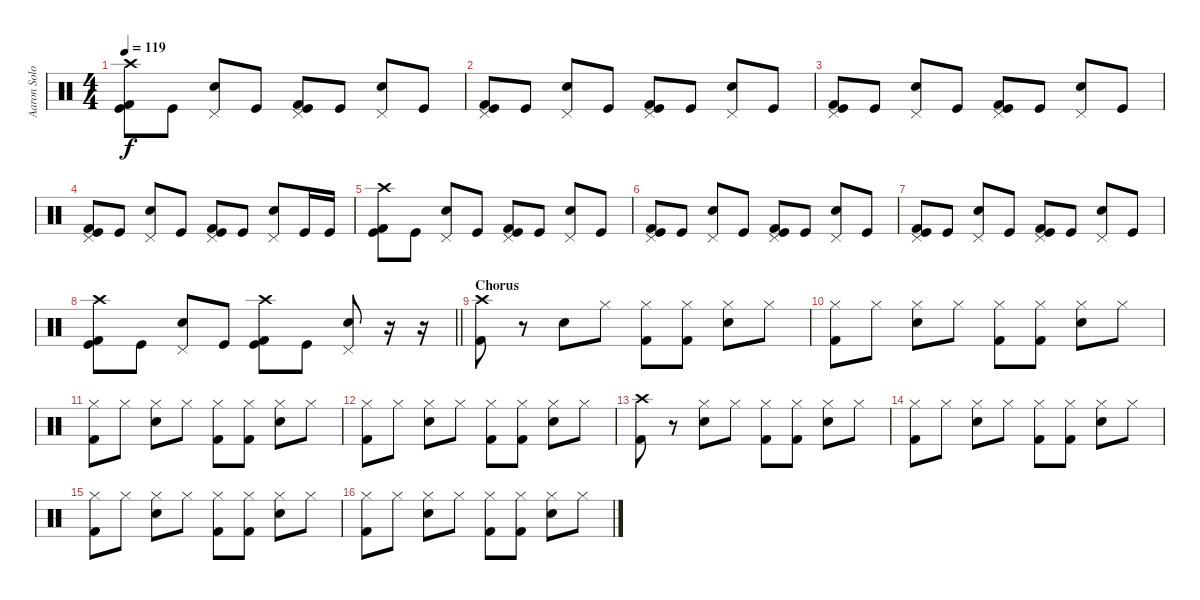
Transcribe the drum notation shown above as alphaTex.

\track ("Aaron Solowoniuk (Drums)" "Aaron Solo") {instrument percussion}
\staff {score}
\articulation defaults
\ts (4 4)
\tempo 119
\clef neutral
\ks c
("Crash high (hit)" "Kick (hit)" "Kick (hit) 2").8{dy f} "Kick (hit)".8 ("Pedal Hi-Hat (hit)" "Electric Snare (hit)").8 "Kick (hit)".8 ("Pedal Hi-Hat (hit)" "Kick (hit)" "Kick (hit) 2").8 "Kick (hit)".8 ("Pedal Hi-Hat (hit)" "Electric Snare (hit)").8 "Kick (hit)".8 |
("Pedal Hi-Hat (hit)" "Kick (hit)" "Kick (hit) 2").8 "Kick (hit)".8 ("Pedal Hi-Hat (hit)" "Electric Snare (hit)").8 "Kick (hit)".8 ("Pedal Hi-Hat (hit)" "Kick (hit)" "Kick (hit) 2").8 "Kick (hit)".8 ("Pedal Hi-Hat (hit)" "Electric Snare (hit)").8 "Kick (hit)".8 |
("Pedal Hi-Hat (hit)" "Kick (hit)" "Kick (hit) 2").8 "Kick (hit)".8 ("Pedal Hi-Hat (hit)" "Electric Snare (hit)").8 "Kick (hit)".8 ("Pedal Hi-Hat (hit)" "Kick (hit)" "Kick (hit) 2").8 "Kick (hit)".8 ("Pedal Hi-Hat (hit)" "Electric Snare (hit)").8 "Kick (hit)".8 |
("Pedal Hi-Hat (hit)" "Kick (hit)" "Kick (hit) 2").8 "Kick (hit)".8 ("Pedal Hi-Hat (hit)" "Electric Snare (hit)").8 "Kick (hit)".8 ("Pedal Hi-Hat (hit)" "Kick (hit)" "Kick (hit) 2").8 "Kick (hit)".8 ("Pedal Hi-Hat (hit)" "Electric Snare (hit)").8 "Kick (hit)".16 "Kick (hit)".16 |
("Crash high (hit)" "Kick (hit)" "Kick (hit) 2").8 "Kick (hit)".8 ("Pedal Hi-Hat (hit)" "Electric Snare (hit)").8 "Kick (hit)".8 ("Pedal Hi-Hat (hit)" "Kick (hit)" "Kick (hit) 2").8 "Kick (hit)".8 ("Pedal Hi-Hat (hit)" "Electric Snare (hit)").8 "Kick (hit)".8 |
("Pedal Hi-Hat (hit)" "Kick (hit)" "Kick (hit) 2").8 "Kick (hit)".8 ("Pedal Hi-Hat (hit)" "Electric Snare (hit)").8 "Kick (hit)".8 ("Pedal Hi-Hat (hit)" "Kick (hit)" "Kick (hit) 2").8 "Kick (hit)".8 ("Pedal Hi-Hat (hit)" "Electric Snare (hit)").8 "Kick (hit)".8 |
("Pedal Hi-Hat (hit)" "Kick (hit)" "Kick (hit) 2").8 "Kick (hit)".8 ("Pedal Hi-Hat (hit)" "Electric Snare (hit)").8 "Kick (hit)".8 ("Pedal Hi-Hat (hit)" "Kick (hit)" "Kick (hit) 2").8 "Kick (hit)".8 ("Pedal Hi-Hat (hit)" "Electric Snare (hit)").8 "Kick (hit)".8 |
\barLineRight lightlight
("Crash high (hit)" "Kick (hit)" "Kick (hit) 2").8 "Kick (hit)".8 ("Pedal Hi-Hat (hit)" "Electric Snare (hit)").8 "Kick (hit)".8 ("Crash high (hit)" "Kick (hit)" "Kick (hit) 2").8 "Kick (hit)".8 ("Pedal Hi-Hat (hit)" "Electric Snare (hit)").8 r.16 r.16 |
\section ("" "Chorus")
("Crash high (hit)" "Kick (hit) 2").8 r.8 "Electric Snare (hit)".8 "Hi-Hat (closed)".8 ("Hi-Hat (closed)" "Kick (hit) 2").8 ("Hi-Hat (closed)" "Kick (hit) 2").8 ("Hi-Hat (closed)" "Electric Snare (hit)").8 "Hi-Hat (closed)".8 |
("Hi-Hat (closed)" "Kick (hit) 2").8 "Hi-Hat (closed)".8 ("Hi-Hat (closed)" "Electric Snare (hit)").8 "Hi-Hat (closed)".8 ("Hi-Hat (closed)" "Kick (hit) 2").8 ("Hi-Hat (closed)" "Kick (hit) 2").8 ("Hi-Hat (closed)" "Electric Snare (hit)").8 "Hi-Hat (closed)".8 |
("Hi-Hat (closed)" "Kick (hit) 2").8 "Hi-Hat (closed)".8 ("Hi-Hat (closed)" "Electric Snare (hit)").8 "Hi-Hat (closed)".8 ("Hi-Hat (closed)" "Kick (hit) 2").8 ("Hi-Hat (closed)" "Kick (hit) 2").8 ("Hi-Hat (closed)" "Electric Snare (hit)").8 "Hi-Hat (closed)".8 |
("Hi-Hat (closed)" "Kick (hit) 2").8 "Hi-Hat (closed)".8 ("Hi-Hat (closed)" "Electric Snare (hit)").8 "Hi-Hat (closed)".8 ("Hi-Hat (closed)" "Kick (hit) 2").8 ("Hi-Hat (closed)" "Kick (hit) 2").8 ("Hi-Hat (closed)" "Electric Snare (hit)").8 "Hi-Hat (closed)".8 |
("Crash high (hit)" "Kick (hit) 2").8 r.8 ("Hi-Hat (closed)" "Electric Snare (hit)").8 "Hi-Hat (closed)".8 ("Hi-Hat (closed)" "Kick (hit) 2").8 ("Hi-Hat (closed)" "Kick (hit) 2").8 ("Hi-Hat (closed)" "Electric Snare (hit)").8 "Hi-Hat (closed)".8 |
("Hi-Hat (closed)" "Kick (hit) 2").8 "Hi-Hat (closed)".8 ("Hi-Hat (closed)" "Electric Snare (hit)").8 "Hi-Hat (closed)".8 ("Hi-Hat (closed)" "Kick (hit) 2").8 ("Hi-Hat (closed)" "Kick (hit) 2").8 ("Hi-Hat (closed)" "Electric Snare (hit)").8 "Hi-Hat (closed)".8 |
("Hi-Hat (closed)" "Kick (hit) 2").8 "Hi-Hat (closed)".8 ("Hi-Hat (closed)" "Electric Snare (hit)").8 "Hi-Hat (closed)".8 ("Hi-Hat (closed)" "Kick (hit) 2").8 ("Hi-Hat (closed)" "Kick (hit) 2").8 ("Hi-Hat (closed)" "Electric Snare (hit)").8 "Hi-Hat (closed)".8 |
("Hi-Hat (closed)" "Kick (hit) 2").8 "Hi-Hat (closed)".8 ("Hi-Hat (closed)" "Electric Snare (hit)").8 "Hi-Hat (closed)".8 ("Hi-Hat (closed)" "Kick (hit) 2").8 ("Hi-Hat (closed)" "Kick (hit) 2").8 ("Hi-Hat (closed)" "Electric Snare (hit)").8 "Hi-Hat (closed)".8
